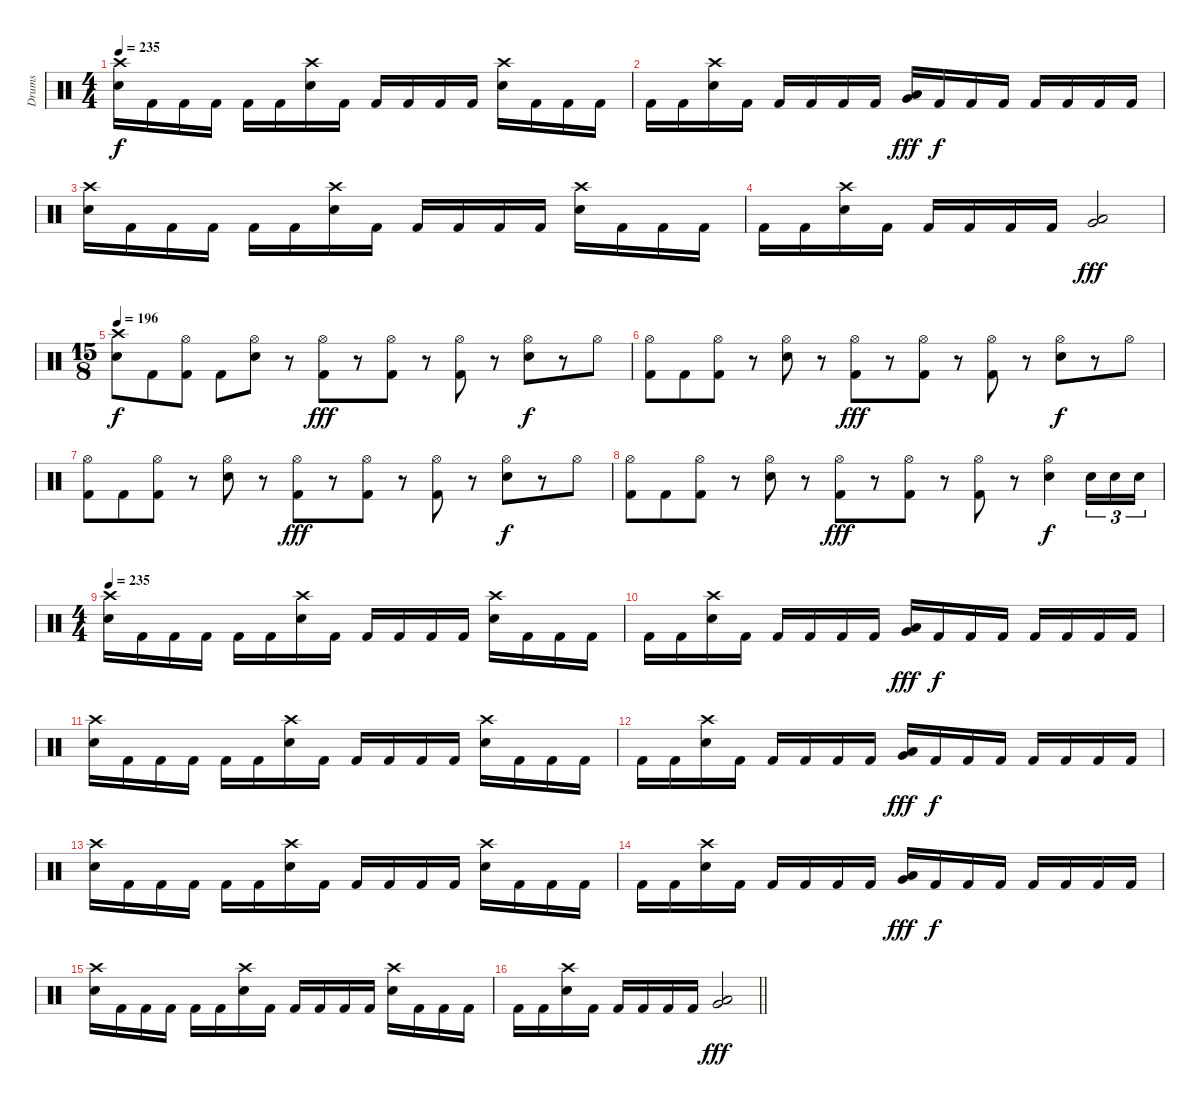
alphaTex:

\track ("Drums" "Drums") {instrument percussion}
\staff {score}
\articulation defaults
\ts (4 4)
\tempo 235
\clef neutral
\ks c
("Crash high (hit)" "Snare (hit) 2").16{dy f} "Kick (hit) 2".16 "Kick (hit) 2".16 "Kick (hit) 2".16 "Kick (hit) 2".16 "Kick (hit) 2".16 ("Crash high (hit)" "Snare (hit) 2").16 "Kick (hit) 2".16 "Kick (hit) 2".16 "Kick (hit) 2".16 "Kick (hit) 2".16 "Kick (hit) 2".16 ("Crash high (hit)" "Snare (hit) 2").16 "Kick (hit) 2".16 "Kick (hit) 2".16 "Kick (hit) 2".16 |
"Kick (hit) 2".16 "Kick (hit) 2".16 ("Crash high (hit)" "Snare (hit) 2").16 "Kick (hit) 2".16 "Kick (hit) 2".16 "Kick (hit) 2".16 "Kick (hit) 2".16 "Kick (hit) 2".16 ("Very Low Tom (hit)" "Low Floor Tom (hit)").16{dy fff} "Kick (hit) 2".16{dy f} "Kick (hit) 2".16 "Kick (hit) 2".16 "Kick (hit) 2".16 "Kick (hit) 2".16 "Kick (hit) 2".16 "Kick (hit) 2".16 |
("Crash high (hit)" "Snare (hit) 2").16 "Kick (hit) 2".16 "Kick (hit) 2".16 "Kick (hit) 2".16 "Kick (hit) 2".16 "Kick (hit) 2".16 ("Crash high (hit)" "Snare (hit) 2").16 "Kick (hit) 2".16 "Kick (hit) 2".16 "Kick (hit) 2".16 "Kick (hit) 2".16 "Kick (hit) 2".16 ("Crash high (hit)" "Snare (hit) 2").16 "Kick (hit) 2".16 "Kick (hit) 2".16 "Kick (hit) 2".16 |
"Kick (hit) 2".16 "Kick (hit) 2".16 ("Crash high (hit)" "Snare (hit) 2").16 "Kick (hit) 2".16 "Kick (hit) 2".16 "Kick (hit) 2".16 "Kick (hit) 2".16 "Kick (hit) 2".16 ("Very Low Tom (hit)" "Low Floor Tom (hit)").2{dy fff} |
\ts (15 8)
\tempo 196
("Crash high (hit)" "Snare (hit) 2").8{dy f} "Kick (hit) 2".8 ("Hi-Hat (open)" "Kick (hit) 2").8 "Kick (hit) 2".8 ("Hi-Hat (open)" "Snare (hit) 2").8 r.8 ("Hi-Hat (open)" "Kick (hit) 2").8{dy fff} r.8 ("Hi-Hat (open)" "Kick (hit) 2").8 r.8 ("Hi-Hat (open)" "Kick (hit) 2").8 r.8 ("Hi-Hat (open)" "Snare (hit) 2").8{dy f} r.8 "Hi-Hat (open)".8 |
("Hi-Hat (open)" "Kick (hit) 2").8 "Kick (hit) 2".8 ("Hi-Hat (open)" "Kick (hit) 2").8 r.8 ("Hi-Hat (open)" "Snare (hit) 2").8 r.8 ("Hi-Hat (open)" "Kick (hit) 2").8{dy fff} r.8 ("Hi-Hat (open)" "Kick (hit) 2").8 r.8 ("Hi-Hat (open)" "Kick (hit) 2").8 r.8 ("Hi-Hat (open)" "Snare (hit) 2").8{dy f} r.8 "Hi-Hat (open)".8 |
("Hi-Hat (open)" "Kick (hit) 2").8 "Kick (hit) 2".8 ("Hi-Hat (open)" "Kick (hit) 2").8 r.8 ("Hi-Hat (open)" "Snare (hit) 2").8 r.8 ("Hi-Hat (open)" "Kick (hit) 2").8{dy fff} r.8 ("Hi-Hat (open)" "Kick (hit) 2").8 r.8 ("Hi-Hat (open)" "Kick (hit) 2").8 r.8 ("Hi-Hat (open)" "Snare (hit) 2").8{dy f} r.8 "Hi-Hat (open)".8 |
("Hi-Hat (open)" "Kick (hit) 2").8 "Kick (hit) 2".8 ("Hi-Hat (open)" "Kick (hit) 2").8 r.8 ("Hi-Hat (open)" "Snare (hit) 2").8 r.8 ("Hi-Hat (open)" "Kick (hit) 2").8{dy fff} r.8 ("Hi-Hat (open)" "Kick (hit) 2").8 r.8 ("Hi-Hat (open)" "Kick (hit) 2").8 r.8 ("Hi-Hat (open)" "Snare (hit) 2").4{dy f} "Snare (hit) 2".16{tu (3 2)} "Snare (hit) 2".16{tu (3 2)} "Snare (hit) 2".16{tu (3 2)} |
\ts (4 4)
\tempo 235
("Crash high (hit)" "Snare (hit) 2").16 "Kick (hit) 2".16 "Kick (hit) 2".16 "Kick (hit) 2".16 "Kick (hit) 2".16 "Kick (hit) 2".16 ("Crash high (hit)" "Snare (hit) 2").16 "Kick (hit) 2".16 "Kick (hit) 2".16 "Kick (hit) 2".16 "Kick (hit) 2".16 "Kick (hit) 2".16 ("Crash high (hit)" "Snare (hit) 2").16 "Kick (hit) 2".16 "Kick (hit) 2".16 "Kick (hit) 2".16 |
"Kick (hit) 2".16 "Kick (hit) 2".16 ("Crash high (hit)" "Snare (hit) 2").16 "Kick (hit) 2".16 "Kick (hit) 2".16 "Kick (hit) 2".16 "Kick (hit) 2".16 "Kick (hit) 2".16 ("Very Low Tom (hit)" "Low Floor Tom (hit)").16{dy fff} "Kick (hit) 2".16{dy f} "Kick (hit) 2".16 "Kick (hit) 2".16 "Kick (hit) 2".16 "Kick (hit) 2".16 "Kick (hit) 2".16 "Kick (hit) 2".16 |
("Crash high (hit)" "Snare (hit) 2").16 "Kick (hit) 2".16 "Kick (hit) 2".16 "Kick (hit) 2".16 "Kick (hit) 2".16 "Kick (hit) 2".16 ("Crash high (hit)" "Snare (hit) 2").16 "Kick (hit) 2".16 "Kick (hit) 2".16 "Kick (hit) 2".16 "Kick (hit) 2".16 "Kick (hit) 2".16 ("Crash high (hit)" "Snare (hit) 2").16 "Kick (hit) 2".16 "Kick (hit) 2".16 "Kick (hit) 2".16 |
"Kick (hit) 2".16 "Kick (hit) 2".16 ("Crash high (hit)" "Snare (hit) 2").16 "Kick (hit) 2".16 "Kick (hit) 2".16 "Kick (hit) 2".16 "Kick (hit) 2".16 "Kick (hit) 2".16 ("Very Low Tom (hit)" "Low Floor Tom (hit)").16{dy fff} "Kick (hit) 2".16{dy f} "Kick (hit) 2".16 "Kick (hit) 2".16 "Kick (hit) 2".16 "Kick (hit) 2".16 "Kick (hit) 2".16 "Kick (hit) 2".16 |
("Crash high (hit)" "Snare (hit) 2").16 "Kick (hit) 2".16 "Kick (hit) 2".16 "Kick (hit) 2".16 "Kick (hit) 2".16 "Kick (hit) 2".16 ("Crash high (hit)" "Snare (hit) 2").16 "Kick (hit) 2".16 "Kick (hit) 2".16 "Kick (hit) 2".16 "Kick (hit) 2".16 "Kick (hit) 2".16 ("Crash high (hit)" "Snare (hit) 2").16 "Kick (hit) 2".16 "Kick (hit) 2".16 "Kick (hit) 2".16 |
"Kick (hit) 2".16 "Kick (hit) 2".16 ("Crash high (hit)" "Snare (hit) 2").16 "Kick (hit) 2".16 "Kick (hit) 2".16 "Kick (hit) 2".16 "Kick (hit) 2".16 "Kick (hit) 2".16 ("Very Low Tom (hit)" "Low Floor Tom (hit)").16{dy fff} "Kick (hit) 2".16{dy f} "Kick (hit) 2".16 "Kick (hit) 2".16 "Kick (hit) 2".16 "Kick (hit) 2".16 "Kick (hit) 2".16 "Kick (hit) 2".16 |
("Crash high (hit)" "Snare (hit) 2").16 "Kick (hit) 2".16 "Kick (hit) 2".16 "Kick (hit) 2".16 "Kick (hit) 2".16 "Kick (hit) 2".16 ("Crash high (hit)" "Snare (hit) 2").16 "Kick (hit) 2".16 "Kick (hit) 2".16 "Kick (hit) 2".16 "Kick (hit) 2".16 "Kick (hit) 2".16 ("Crash high (hit)" "Snare (hit) 2").16 "Kick (hit) 2".16 "Kick (hit) 2".16 "Kick (hit) 2".16 |
\barLineRight lightlight "Kick (hit) 2".16 "Kick (hit) 2".16
("Crash high (hit)" "Snare (hit) 2").16 "Kick (hit) 2".16 "Kick (hit) 2".16 "Kick (hit) 2".16 "Kick (hit) 2".16 "Kick (hit) 2".16 ("Very Low Tom (hit)" "Low Floor Tom (hit)").2{dy fff}
